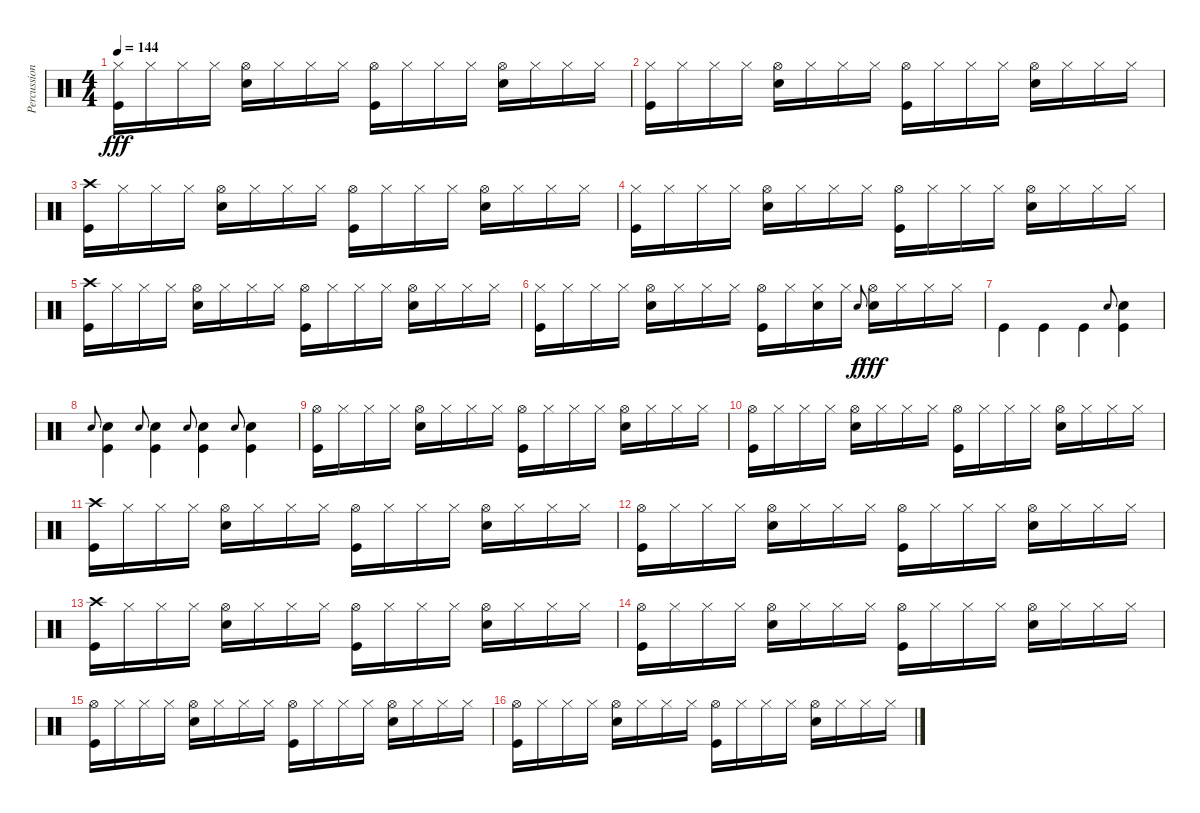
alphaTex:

\track ("Percussions" "Percussion") {instrument percussion}
\staff {score}
\articulation defaults
\ts (4 4)
\tempo 144
\clef neutral
\ks c
("Hi-Hat (closed)" "Kick (hit)").16{dy fff} "Hi-Hat (closed)".16 "Hi-Hat (closed)".16 "Hi-Hat (closed)".16 ("Hi-Hat (open)" "Snare (hit) 2").16 "Hi-Hat (closed)".16 "Hi-Hat (closed)".16 "Hi-Hat (closed)".16 ("Hi-Hat (open)" "Kick (hit)").16 "Hi-Hat (closed)".16 "Hi-Hat (closed)".16 "Hi-Hat (closed)".16 ("Hi-Hat (open)" "Snare (hit) 2").16 "Hi-Hat (closed)".16 "Hi-Hat (closed)".16 "Hi-Hat (closed)".16 |
("Hi-Hat (closed)" "Kick (hit)").16 "Hi-Hat (closed)".16 "Hi-Hat (closed)".16 "Hi-Hat (closed)".16 ("Hi-Hat (open)" "Snare (hit) 2").16 "Hi-Hat (closed)".16 "Hi-Hat (closed)".16 "Hi-Hat (closed)".16 ("Hi-Hat (open)" "Kick (hit)").16 "Hi-Hat (closed)".16 "Hi-Hat (closed)".16 "Hi-Hat (closed)".16 ("Hi-Hat (open)" "Snare (hit) 2").16 "Hi-Hat (closed)".16 "Hi-Hat (closed)".16 "Hi-Hat (closed)".16 |
("Crash high (hit)" "Kick (hit)").16 "Hi-Hat (closed)".16 "Hi-Hat (closed)".16 "Hi-Hat (closed)".16 ("Hi-Hat (open)" "Snare (hit) 2").16 "Hi-Hat (closed)".16 "Hi-Hat (closed)".16 "Hi-Hat (closed)".16 ("Hi-Hat (open)" "Kick (hit)").16 "Hi-Hat (closed)".16 "Hi-Hat (closed)".16 "Hi-Hat (closed)".16 ("Hi-Hat (open)" "Snare (hit) 2").16 "Hi-Hat (closed)".16 "Hi-Hat (closed)".16 "Hi-Hat (closed)".16 |
("Hi-Hat (closed)" "Kick (hit)").16 "Hi-Hat (closed)".16 "Hi-Hat (closed)".16 "Hi-Hat (closed)".16 ("Hi-Hat (open)" "Snare (hit) 2").16 "Hi-Hat (closed)".16 "Hi-Hat (closed)".16 "Hi-Hat (closed)".16 ("Hi-Hat (open)" "Kick (hit)").16 "Hi-Hat (closed)".16 "Hi-Hat (closed)".16 "Hi-Hat (closed)".16 ("Hi-Hat (open)" "Snare (hit) 2").16 "Hi-Hat (closed)".16 "Hi-Hat (closed)".16 "Hi-Hat (closed)".16 |
("Crash high (hit)" "Kick (hit)").16 "Hi-Hat (closed)".16 "Hi-Hat (closed)".16 "Hi-Hat (closed)".16 ("Hi-Hat (open)" "Snare (hit) 2").16 "Hi-Hat (closed)".16 "Hi-Hat (closed)".16 "Hi-Hat (closed)".16 ("Hi-Hat (open)" "Kick (hit)").16 "Hi-Hat (closed)".16 "Hi-Hat (closed)".16 "Hi-Hat (closed)".16 ("Hi-Hat (open)" "Snare (hit) 2").16 "Hi-Hat (closed)".16 "Hi-Hat (closed)".16 "Hi-Hat (closed)".16 |
("Hi-Hat (closed)" "Kick (hit)").16 "Hi-Hat (closed)".16 "Hi-Hat (closed)".16 "Hi-Hat (closed)".16 ("Hi-Hat (open)" "Snare (hit) 2").16 "Hi-Hat (closed)".16 "Hi-Hat (closed)".16 "Hi-Hat (closed)".16 ("Hi-Hat (open)" "Kick (hit)").16 "Hi-Hat (closed)".16 ("Hi-Hat (closed)" "Snare (hit) 2").16 "Hi-Hat (closed)".16 "Snare (hit) 2".8{gr onbeat dy f} ("Hi-Hat (open)" "Snare (hit) 2").16{dy fff} "Hi-Hat (closed)".16 "Hi-Hat (closed)".16 "Hi-Hat (closed)".16 |
"Kick (hit)".4{beam Down} "Kick (hit)".4{beam Down} "Kick (hit)".4{beam Down} "Snare (hit) 2".8{gr onbeat} ("Snare (hit) 2" "Kick (hit)").4{beam Down} |
"Snare (hit) 2".8{gr onbeat} ("Snare (hit) 2" "Kick (hit)").4{beam Down} "Snare (hit) 2".8{gr onbeat} ("Snare (hit) 2" "Kick (hit)").4{beam Down} "Snare (hit) 2".8{gr onbeat} ("Snare (hit) 2" "Kick (hit)").4{beam Down} "Snare (hit) 2".8{gr onbeat} ("Snare (hit) 2" "Kick (hit)").4{beam Down} |
("Hi-Hat (open)" "Kick (hit)").16 "Hi-Hat (closed)".16 "Hi-Hat (closed)".16 "Hi-Hat (closed)".16 ("Hi-Hat (open)" "Snare (hit) 2").16 "Hi-Hat (closed)".16 "Hi-Hat (closed)".16 "Hi-Hat (closed)".16 ("Hi-Hat (open)" "Kick (hit)").16 "Hi-Hat (closed)".16 "Hi-Hat (closed)".16 "Hi-Hat (closed)".16 ("Hi-Hat (open)" "Snare (hit) 2").16 "Hi-Hat (closed)".16 "Hi-Hat (closed)".16 "Hi-Hat (closed)".16 |
("Hi-Hat (open)" "Kick (hit)").16 "Hi-Hat (closed)".16 "Hi-Hat (closed)".16 "Hi-Hat (closed)".16 ("Hi-Hat (open)" "Snare (hit) 2").16 "Hi-Hat (closed)".16 "Hi-Hat (closed)".16 "Hi-Hat (closed)".16 ("Hi-Hat (open)" "Kick (hit)").16 "Hi-Hat (closed)".16 "Hi-Hat (closed)".16 "Hi-Hat (closed)".16 ("Hi-Hat (open)" "Snare (hit) 2").16 "Hi-Hat (closed)".16 "Hi-Hat (closed)".16 "Hi-Hat (closed)".16 |
("Crash high (hit)" "Kick (hit)").16 "Hi-Hat (closed)".16 "Hi-Hat (closed)".16 "Hi-Hat (closed)".16 ("Hi-Hat (open)" "Snare (hit) 2").16 "Hi-Hat (closed)".16 "Hi-Hat (closed)".16 "Hi-Hat (closed)".16 ("Hi-Hat (open)" "Kick (hit)").16 "Hi-Hat (closed)".16 "Hi-Hat (closed)".16 "Hi-Hat (closed)".16 ("Hi-Hat (open)" "Snare (hit) 2").16 "Hi-Hat (closed)".16 "Hi-Hat (closed)".16 "Hi-Hat (closed)".16 |
("Hi-Hat (open)" "Kick (hit)").16 "Hi-Hat (closed)".16 "Hi-Hat (closed)".16 "Hi-Hat (closed)".16 ("Hi-Hat (open)" "Snare (hit) 2").16 "Hi-Hat (closed)".16 "Hi-Hat (closed)".16 "Hi-Hat (closed)".16 ("Hi-Hat (open)" "Kick (hit)").16 "Hi-Hat (closed)".16 "Hi-Hat (closed)".16 "Hi-Hat (closed)".16 ("Hi-Hat (open)" "Snare (hit) 2").16 "Hi-Hat (closed)".16 "Hi-Hat (closed)".16 "Hi-Hat (closed)".16 |
("Crash high (hit)" "Kick (hit)").16 "Hi-Hat (closed)".16 "Hi-Hat (closed)".16 "Hi-Hat (closed)".16 ("Hi-Hat (open)" "Snare (hit) 2").16 "Hi-Hat (closed)".16 "Hi-Hat (closed)".16 "Hi-Hat (closed)".16 ("Hi-Hat (open)" "Kick (hit)").16 "Hi-Hat (closed)".16 "Hi-Hat (closed)".16 "Hi-Hat (closed)".16 ("Hi-Hat (open)" "Snare (hit) 2").16 "Hi-Hat (closed)".16 "Hi-Hat (closed)".16 "Hi-Hat (closed)".16 |
("Hi-Hat (open)" "Kick (hit)").16 "Hi-Hat (closed)".16 "Hi-Hat (closed)".16 "Hi-Hat (closed)".16 ("Hi-Hat (open)" "Snare (hit) 2").16 "Hi-Hat (closed)".16 "Hi-Hat (closed)".16 "Hi-Hat (closed)".16 ("Hi-Hat (open)" "Kick (hit)").16 "Hi-Hat (closed)".16 "Hi-Hat (closed)".16 "Hi-Hat (closed)".16 ("Hi-Hat (open)" "Snare (hit) 2").16 "Hi-Hat (closed)".16 "Hi-Hat (closed)".16 "Hi-Hat (closed)".16 |
("Hi-Hat (open)" "Kick (hit)").16 "Hi-Hat (closed)".16 "Hi-Hat (closed)".16 "Hi-Hat (closed)".16 ("Hi-Hat (open)" "Snare (hit) 2").16 "Hi-Hat (closed)".16 "Hi-Hat (closed)".16 "Hi-Hat (closed)".16 ("Hi-Hat (open)" "Kick (hit)").16 "Hi-Hat (closed)".16 "Hi-Hat (closed)".16 "Hi-Hat (closed)".16 ("Hi-Hat (open)" "Snare (hit) 2").16 "Hi-Hat (closed)".16 "Hi-Hat (closed)".16 "Hi-Hat (closed)".16 |
("Hi-Hat (open)" "Kick (hit)").16 "Hi-Hat (closed)".16 "Hi-Hat (closed)".16 "Hi-Hat (closed)".16 ("Hi-Hat (open)" "Snare (hit) 2").16 "Hi-Hat (closed)".16 "Hi-Hat (closed)".16 "Hi-Hat (closed)".16 ("Hi-Hat (open)" "Kick (hit)").16 "Hi-Hat (closed)".16 "Hi-Hat (closed)".16 "Hi-Hat (closed)".16 ("Hi-Hat (open)" "Snare (hit) 2").16 "Hi-Hat (closed)".16 "Hi-Hat (closed)".16 "Hi-Hat (closed)".16
